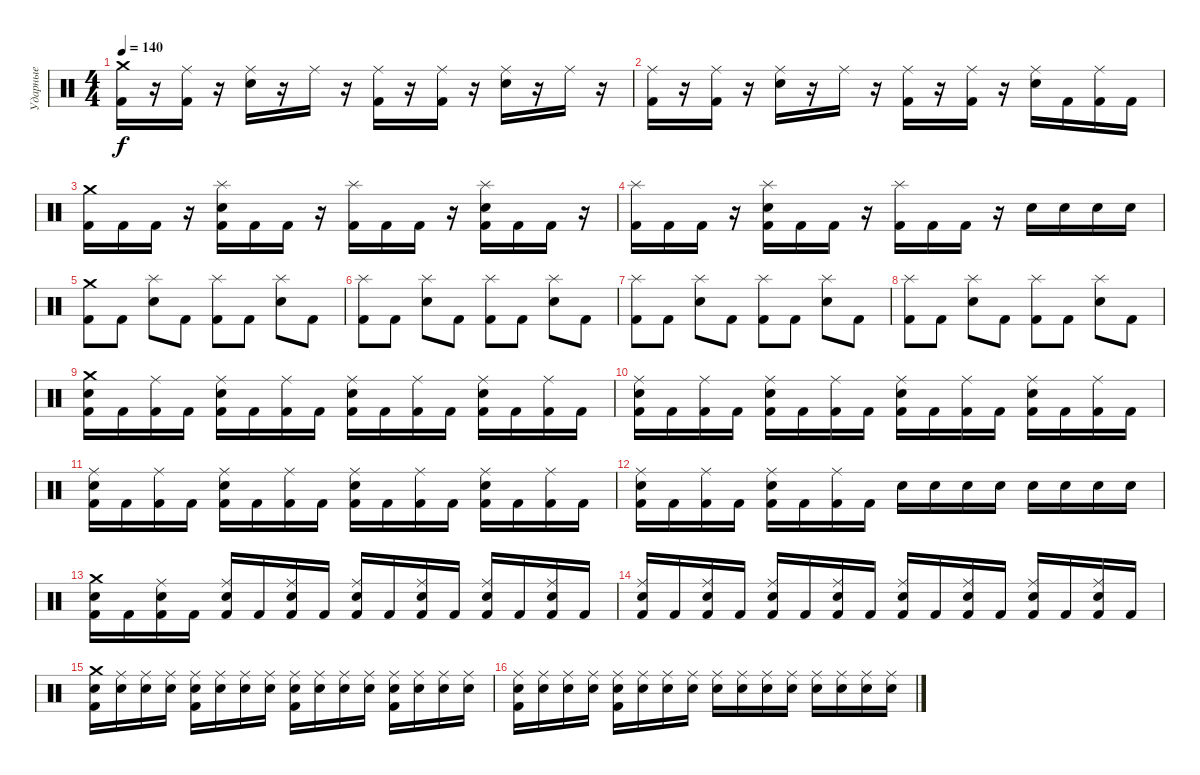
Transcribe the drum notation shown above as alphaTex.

\track ("Ударные" "Ударные") {instrument percussion}
\staff {score}
\articulation defaults
\ts (4 4)
\tempo 140
\clef neutral
\ks c
("Crash medium (hit)" "Kick (hit) 2").16{dy f} r.16 ("Ride (middle)" "Kick (hit) 2").16 r.16 ("Ride (middle)" "Snare (hit) 2").16 r.16 "Ride (middle)".16 r.16 ("Ride (middle)" "Kick (hit) 2").16 r.16 ("Ride (middle)" "Kick (hit) 2").16 r.16 ("Ride (middle)" "Snare (hit) 2").16 r.16 "Ride (middle)".16 r.16 |
("Ride (middle)" "Kick (hit) 2").16 r.16 ("Ride (middle)" "Kick (hit) 2").16 r.16 ("Ride (middle)" "Snare (hit) 2").16 r.16 "Ride (middle)".16 r.16 ("Ride (middle)" "Kick (hit) 2").16 r.16 ("Ride (middle)" "Kick (hit) 2").16 r.16 ("Ride (middle)" "Snare (hit) 2").16 "Kick (hit) 2".16 ("Ride (middle)" "Kick (hit) 2").16 "Kick (hit) 2".16 |
("Crash medium (hit)" "Kick (hit) 2").16 "Kick (hit) 2".16 "Kick (hit) 2".16 r.16 ("Splash (hit)" "Snare (hit) 2" "Kick (hit) 2").16 "Kick (hit) 2".16 "Kick (hit) 2".16 r.16 ("Splash (hit)" "Kick (hit) 2").16 "Kick (hit) 2".16 "Kick (hit) 2".16 r.16 ("Splash (hit)" "Snare (hit) 2" "Kick (hit) 2").16 "Kick (hit) 2".16 "Kick (hit) 2".16 r.16 |
("Splash (hit)" "Kick (hit) 2").16 "Kick (hit) 2".16 "Kick (hit) 2".16 r.16 ("Splash (hit)" "Snare (hit) 2" "Kick (hit) 2").16 "Kick (hit) 2".16 "Kick (hit) 2".16 r.16 ("Splash (hit)" "Kick (hit) 2").16 "Kick (hit) 2".16 "Kick (hit) 2".16 r.16 "Snare (hit) 2".16 "Snare (hit) 2".16 "Snare (hit) 2".16 "Snare (hit) 2".16 |
("Crash medium (hit)" "Kick (hit) 2").8 "Kick (hit) 2".8 ("Splash (hit)" "Snare (hit) 2").8 "Kick (hit) 2".8 ("Splash (hit)" "Kick (hit) 2").8 "Kick (hit) 2".8 ("Splash (hit)" "Snare (hit) 2").8 "Kick (hit) 2".8 |
("Splash (hit)" "Kick (hit) 2").8 "Kick (hit) 2".8 ("Splash (hit)" "Snare (hit) 2").8 "Kick (hit) 2".8 ("Splash (hit)" "Kick (hit) 2").8 "Kick (hit) 2".8 ("Splash (hit)" "Snare (hit) 2").8 "Kick (hit) 2".8 |
("Splash (hit)" "Kick (hit) 2").8 "Kick (hit) 2".8 ("Splash (hit)" "Snare (hit) 2").8 "Kick (hit) 2".8 ("Splash (hit)" "Kick (hit) 2").8 "Kick (hit) 2".8 ("Splash (hit)" "Snare (hit) 2").8 "Kick (hit) 2".8 |
("Splash (hit)" "Kick (hit) 2").8 "Kick (hit) 2".8 ("Splash (hit)" "Snare (hit) 2").8 "Kick (hit) 2".8 ("Splash (hit)" "Kick (hit) 2").8 "Kick (hit) 2".8 ("Splash (hit)" "Snare (hit) 2").8 "Kick (hit) 2".8 |
("Crash medium (hit)" "Snare (hit) 2" "Kick (hit) 2").16 "Kick (hit) 2".16 ("Ride (middle)" "Kick (hit) 2").16 "Kick (hit) 2".16 ("Ride (middle)" "Snare (hit) 2" "Kick (hit) 2").16 "Kick (hit) 2".16 ("Ride (middle)" "Kick (hit) 2").16 "Kick (hit) 2".16 ("Ride (middle)" "Snare (hit) 2" "Kick (hit) 2").16 "Kick (hit) 2".16 ("Ride (middle)" "Kick (hit) 2").16 "Kick (hit) 2".16 ("Ride (middle)" "Snare (hit) 2" "Kick (hit) 2").16 "Kick (hit) 2".16 ("Ride (middle)" "Kick (hit) 2").16 "Kick (hit) 2".16 |
("Ride (middle)" "Snare (hit) 2" "Kick (hit) 2").16 "Kick (hit) 2".16 ("Ride (middle)" "Kick (hit) 2").16 "Kick (hit) 2".16 ("Ride (middle)" "Snare (hit) 2" "Kick (hit) 2").16 "Kick (hit) 2".16 ("Ride (middle)" "Kick (hit) 2").16 "Kick (hit) 2".16 ("Ride (middle)" "Snare (hit) 2" "Kick (hit) 2").16 "Kick (hit) 2".16 ("Ride (middle)" "Kick (hit) 2").16 "Kick (hit) 2".16 ("Ride (middle)" "Snare (hit) 2" "Kick (hit) 2").16 "Kick (hit) 2".16 ("Ride (middle)" "Kick (hit) 2").16 "Kick (hit) 2".16 |
("Ride (middle)" "Snare (hit) 2" "Kick (hit) 2").16 "Kick (hit) 2".16 ("Ride (middle)" "Kick (hit) 2").16 "Kick (hit) 2".16 ("Ride (middle)" "Snare (hit) 2" "Kick (hit) 2").16 "Kick (hit) 2".16 ("Ride (middle)" "Kick (hit) 2").16 "Kick (hit) 2".16 ("Ride (middle)" "Snare (hit) 2" "Kick (hit) 2").16 "Kick (hit) 2".16 ("Ride (middle)" "Kick (hit) 2").16 "Kick (hit) 2".16 ("Ride (middle)" "Snare (hit) 2" "Kick (hit) 2").16 "Kick (hit) 2".16 ("Ride (middle)" "Kick (hit) 2").16 "Kick (hit) 2".16 |
("Ride (middle)" "Snare (hit) 2" "Kick (hit) 2").16 "Kick (hit) 2".16 ("Ride (middle)" "Kick (hit) 2").16 "Kick (hit) 2".16 ("Ride (middle)" "Snare (hit) 2" "Kick (hit) 2").16 "Kick (hit) 2".16 ("Ride (middle)" "Kick (hit) 2").16 "Kick (hit) 2".16 "Snare (hit) 2".16 "Snare (hit) 2".16 "Snare (hit) 2".16 "Snare (hit) 2".16 "Snare (hit) 2".16 "Snare (hit) 2".16 "Snare (hit) 2".16 "Snare (hit) 2".16 |
("Crash medium (hit)" "Snare (hit) 2" "Kick (hit) 2").16 "Kick (hit) 2".16 ("Ride (middle)" "Snare (hit) 2" "Kick (hit) 2").16 "Kick (hit) 2".16 ("Ride (middle)" "Snare (hit) 2" "Kick (hit) 2").16 "Kick (hit) 2".16 ("Ride (middle)" "Snare (hit) 2" "Kick (hit) 2").16 "Kick (hit) 2".16 ("Ride (middle)" "Snare (hit) 2" "Kick (hit) 2").16 "Kick (hit) 2".16 ("Ride (middle)" "Snare (hit) 2" "Kick (hit) 2").16 "Kick (hit) 2".16 ("Ride (middle)" "Snare (hit) 2" "Kick (hit) 2").16 "Kick (hit) 2".16 ("Ride (middle)" "Snare (hit) 2" "Kick (hit) 2").16 "Kick (hit) 2".16 |
("Ride (middle)" "Snare (hit) 2" "Kick (hit) 2").16 "Kick (hit) 2".16 ("Ride (middle)" "Snare (hit) 2" "Kick (hit) 2").16 "Kick (hit) 2".16 ("Ride (middle)" "Snare (hit) 2" "Kick (hit) 2").16 "Kick (hit) 2".16 ("Ride (middle)" "Snare (hit) 2" "Kick (hit) 2").16 "Kick (hit) 2".16 ("Ride (middle)" "Snare (hit) 2" "Kick (hit) 2").16 "Kick (hit) 2".16 ("Ride (middle)" "Snare (hit) 2" "Kick (hit) 2").16 "Kick (hit) 2".16 ("Ride (middle)" "Snare (hit) 2" "Kick (hit) 2").16 "Kick (hit) 2".16 ("Ride (middle)" "Snare (hit) 2" "Kick (hit) 2").16 "Kick (hit) 2".16 |
("Crash medium (hit)" "Snare (hit) 2" "Kick (hit) 2").16 ("Ride (middle)" "Snare (hit) 2").16 ("Ride (middle)" "Snare (hit) 2").16 ("Ride (middle)" "Snare (hit) 2").16 ("Ride (middle)" "Snare (hit) 2" "Kick (hit) 2").16 ("Ride (middle)" "Snare (hit) 2").16 ("Ride (middle)" "Snare (hit) 2").16 ("Ride (middle)" "Snare (hit) 2").16 ("Ride (middle)" "Snare (hit) 2" "Kick (hit) 2").16 ("Ride (middle)" "Snare (hit) 2").16 ("Ride (middle)" "Snare (hit) 2").16 ("Ride (middle)" "Snare (hit) 2").16 ("Ride (middle)" "Snare (hit) 2" "Kick (hit) 2").16 ("Ride (middle)" "Snare (hit) 2").16 ("Ride (middle)" "Snare (hit) 2").16 ("Ride (middle)" "Snare (hit) 2").16 |
("Ride (middle)" "Snare (hit) 2" "Kick (hit) 2").16 ("Ride (middle)" "Snare (hit) 2").16 ("Ride (middle)" "Snare (hit) 2").16 ("Ride (middle)" "Snare (hit) 2").16 ("Ride (middle)" "Snare (hit) 2" "Kick (hit) 2").16 ("Ride (middle)" "Snare (hit) 2").16 ("Ride (middle)" "Snare (hit) 2").16 ("Ride (middle)" "Snare (hit) 2").16 ("Ride (middle)" "Snare (hit) 2").16 ("Ride (middle)" "Snare (hit) 2").16 ("Ride (middle)" "Snare (hit) 2").16 ("Ride (middle)" "Snare (hit) 2").16 ("Ride (middle)" "Snare (hit) 2").16 ("Ride (middle)" "Snare (hit) 2").16 ("Ride (middle)" "Snare (hit) 2").16 ("Ride (middle)" "Snare (hit) 2").16
